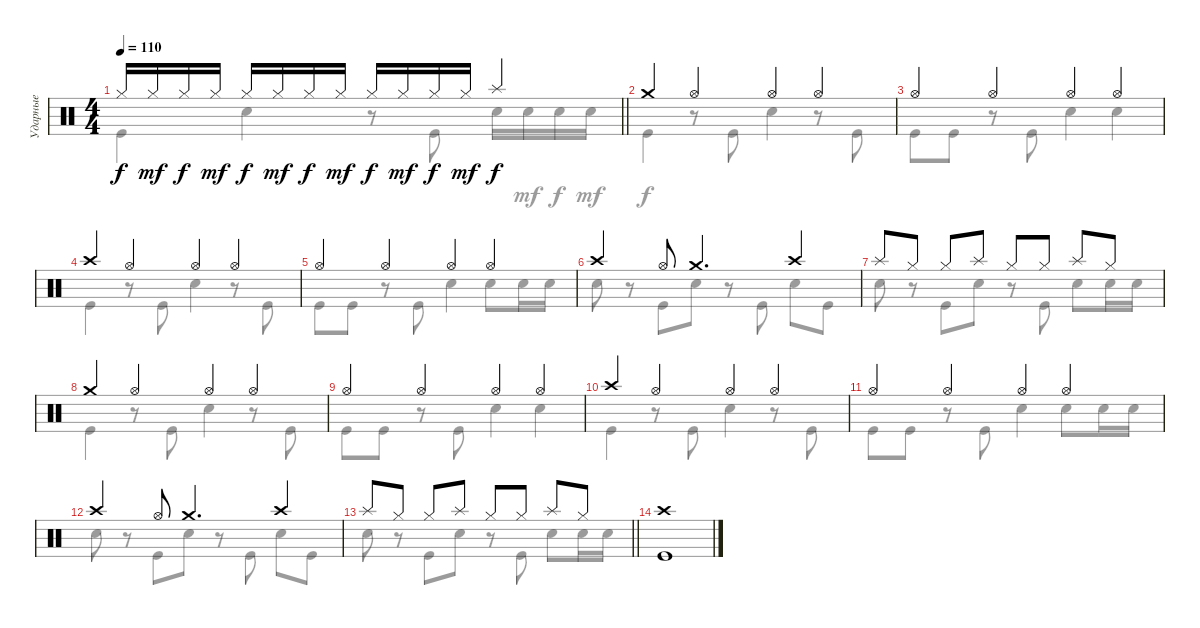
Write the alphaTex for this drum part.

\track ("Ударные" "Ударные") {instrument percussion}
\staff {score}
\articulation defaults
\voice
\ts (4 4)
\tempo 110
\clef neutral
\barLineRight lightlight
\ks c "Hi-Hat (closed)".16{dy f} "Hi-Hat (closed)".16{dy mf} "Hi-Hat (closed)".16{dy f} "Hi-Hat (closed)".16{dy mf} "Hi-Hat (closed)".16{dy f} "Hi-Hat (closed)".16{dy mf} "Hi-Hat (closed)".16{dy f} "Hi-Hat (closed)".16{dy mf} "Hi-Hat (closed)".16{dy f} "Hi-Hat (closed)".16{dy mf} "Hi-Hat (closed)".16{dy f} "Hi-Hat (closed)".16{dy mf} "Splash (hit)".4{dy f}
|
"Crash medium (hit)".4 "Hi-Hat (open)".4 "Hi-Hat (open)".4 "Hi-Hat (open)".4 |
"Hi-Hat (open)".4 "Hi-Hat (open)".4 "Hi-Hat (open)".4 "Hi-Hat (open)".4 |
"Crash high (hit)".4 "Hi-Hat (open)".4 "Hi-Hat (open)".4 "Hi-Hat (open)".4 |
"Hi-Hat (open)".4 "Hi-Hat (open)".4 "Hi-Hat (open)".4 "Hi-Hat (open)".4 |
"Crash high (hit)".4 "Hi-Hat (open)".8 "Crash medium (hit)".4{d} "Crash high (hit)".4 |
"Splash (hit)".8 "Hi-Hat (closed)".8 "Hi-Hat (closed)".8 "Splash (hit)".8 "Hi-Hat (closed)".8 "Hi-Hat (closed)".8 "Splash (hit)".8 "Hi-Hat (closed)".8 |
"Crash medium (hit)".4 "Hi-Hat (open)".4 "Hi-Hat (open)".4 "Hi-Hat (open)".4 |
"Hi-Hat (open)".4 "Hi-Hat (open)".4 "Hi-Hat (open)".4 "Hi-Hat (open)".4 |
"Crash high (hit)".4 "Hi-Hat (open)".4 "Hi-Hat (open)".4 "Hi-Hat (open)".4 |
"Hi-Hat (open)".4 "Hi-Hat (open)".4 "Hi-Hat (open)".4 "Hi-Hat (open)".4 |
"Crash high (hit)".4 "Hi-Hat (open)".8 "Crash medium (hit)".4{d} "Crash high (hit)".4 |
\barLineRight lightlight "Splash (hit)".8 "Hi-Hat (closed)".8 "Hi-Hat (closed)".8 "Splash (hit)".8 "Hi-Hat (closed)".8 "Hi-Hat (closed)".8 "Splash (hit)".8 "Hi-Hat (closed)".8
|
("Crash high (hit)" "Kick (hit)").1
\voice
\clef neutral
\ottava regular
\simile none
\barLineRight lightlight
\ks c "Kick (hit)".4{dy f} "Snare (hit) 2".4
r.8 "Kick (hit)".8 "Snare (hit) 2".16 "Snare (hit) 2".16{dy mf} "Snare (hit) 2".16{dy f} "Snare (hit) 2".16{dy mf} |
"Kick (hit)".4{dy f} r.8 "Kick (hit)".8 "Snare (hit) 2".4 r.8 "Kick (hit)".8 |
"Kick (hit)".8 "Kick (hit)".8 r.8 "Kick (hit)".8 "Snare (hit) 2".4 "Snare (hit) 2".4 |
"Kick (hit)".4 r.8 "Kick (hit)".8 "Snare (hit) 2".4 r.8 "Kick (hit)".8 |
"Kick (hit)".8 "Kick (hit)".8 r.8 "Kick (hit)".8 "Snare (hit) 2".4 "Snare (hit) 2".8 "Snare (hit) 2".16 "Snare (hit) 2".16 |
"Snare (hit) 2".8 r.8 "Kick (hit)".8 "Snare (hit) 2".8 r.8 "Kick (hit)".8 "Snare (hit) 2".8 "Kick (hit)".8 |
"Snare (hit) 2".8 r.8 "Kick (hit)".8 "Snare (hit) 2".8 r.8 "Kick (hit)".8 "Snare (hit) 2".8 "Snare (hit) 2".16 "Snare (hit) 2".16 |
"Kick (hit)".4 r.8 "Kick (hit)".8 "Snare (hit) 2".4 r.8 "Kick (hit)".8 |
"Kick (hit)".8 "Kick (hit)".8 r.8 "Kick (hit)".8 "Snare (hit) 2".4 "Snare (hit) 2".4 |
"Kick (hit)".4 r.8 "Kick (hit)".8 "Snare (hit) 2".4 r.8 "Kick (hit)".8 |
"Kick (hit)".8 "Kick (hit)".8 r.8 "Kick (hit)".8 "Snare (hit) 2".4 "Snare (hit) 2".8 "Snare (hit) 2".16 "Snare (hit) 2".16 |
"Snare (hit) 2".8 r.8 "Kick (hit)".8 "Snare (hit) 2".8 r.8 "Kick (hit)".8 "Snare (hit) 2".8 "Kick (hit)".8 |
\barLineRight lightlight "Snare (hit) 2".8
r.8 "Kick (hit)".8 "Snare (hit) 2".8 r.8 "Kick (hit)".8 "Snare (hit) 2".8 "Snare (hit) 2".16 "Snare (hit) 2".16 |
